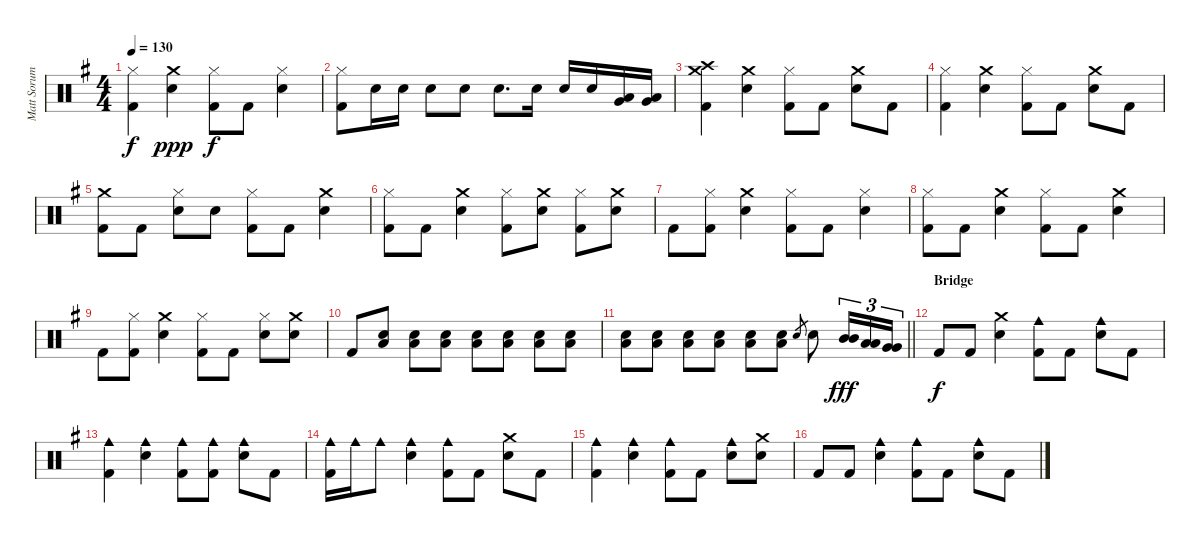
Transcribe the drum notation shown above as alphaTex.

\track ("Matt Sorum - Drums" "Matt Sorum") {instrument percussion}
\staff {score}
\articulation defaults
\ts (4 4)
\tempo 130
\clef neutral
\ks g
("Hi-Hat (closed)" "Kick (hit) 2").4{dy f} ("Crash medium (hit)" "Snare (hit) 2").4{dy ppp} ("Hi-Hat (closed)" "Kick (hit) 2").8{dy f} "Kick (hit) 2".8 ("Hi-Hat (closed)" "Snare (hit) 2").4 |
("Hi-Hat (closed)" "Kick (hit) 2").8 "Snare (hit) 2".16 "Snare (hit) 2".16 "Snare (hit) 2".8 "Snare (hit) 2".8 "Snare (hit) 2".8{d} "Snare (hit) 2".16 "Snare (hit) 2".16 "Snare (hit) 2".16 ("Low Tom (hit)" "Very Low Tom (hit)").16 ("Low Tom (hit)" "Very Low Tom (hit)").16 |
("Crash medium (hit)" "Crash high (hit)" "Kick (hit) 2").4 ("Crash medium (hit)" "Snare (hit) 2").4 ("Hi-Hat (closed)" "Kick (hit) 2").8 "Kick (hit) 2".8 ("Crash medium (hit)" "Snare (hit) 2").8 "Kick (hit) 2".8 |
("Hi-Hat (closed)" "Kick (hit) 2").4 ("Crash medium (hit)" "Snare (hit) 2").4 ("Hi-Hat (closed)" "Kick (hit) 2").8 "Kick (hit) 2".8 ("Crash medium (hit)" "Snare (hit) 2").8 "Kick (hit) 2".8 |
("Crash medium (hit)" "Kick (hit) 2").8 "Kick (hit) 2".8 ("Hi-Hat (closed)" "Snare (hit) 2").8 "Snare (hit) 2".8 ("Hi-Hat (closed)" "Kick (hit) 2").8 "Kick (hit) 2".8 ("Crash medium (hit)" "Snare (hit) 2").4 |
("Hi-Hat (closed)" "Kick (hit) 2").8 "Kick (hit) 2".8 ("Crash medium (hit)" "Snare (hit) 2").4 ("Hi-Hat (closed)" "Kick (hit) 2").8 ("Crash medium (hit)" "Snare (hit) 2").8 ("Hi-Hat (closed)" "Kick (hit) 2").8 ("Crash medium (hit)" "Snare (hit) 2").8 |
"Kick (hit) 2".8 ("Hi-Hat (closed)" "Kick (hit) 2").8 ("Crash medium (hit)" "Snare (hit) 2").4 ("Hi-Hat (closed)" "Kick (hit) 2").8 "Kick (hit) 2".8 ("Hi-Hat (closed)" "Snare (hit) 2").4 |
("Hi-Hat (closed)" "Kick (hit) 2").8 "Kick (hit) 2".8 ("Crash medium (hit)" "Snare (hit) 2").4 ("Hi-Hat (closed)" "Kick (hit) 2").8 "Kick (hit) 2".8 ("Crash medium (hit)" "Snare (hit) 2").4 |
"Kick (hit) 2".8 ("Hi-Hat (closed)" "Kick (hit) 2").8 ("Crash medium (hit)" "Snare (hit) 2").4 ("Hi-Hat (closed)" "Kick (hit) 2").8 "Kick (hit) 2".8 ("Hi-Hat (closed)" "Snare (hit) 2").8 ("Crash medium (hit)" "Snare (hit) 2").8 |
"Kick (hit) 2".8 ("Low Tom (hit)" "Snare (hit) 2").8 ("Low Tom (hit)" "Snare (hit) 2").8 ("Low Tom (hit)" "Snare (hit) 2").8 ("Low Tom (hit)" "Snare (hit) 2").8 ("Low Tom (hit)" "Snare (hit) 2").8 ("Low Tom (hit)" "Snare (hit) 2").8 ("Low Tom (hit)" "Snare (hit) 2").8 |
\barLineRight lightlight
("Low Tom (hit)" "Snare (hit) 2").8 ("Low Tom (hit)" "Snare (hit) 2").8 ("Low Tom (hit)" "Snare (hit) 2").8 ("Low Tom (hit)" "Snare (hit) 2").8 ("Low Tom (hit)" "Snare (hit) 2").8 ("Low Tom (hit)" "Snare (hit) 2").8 "Snare (hit) 2".8{gr} "Snare (hit) 2".8 ("Mid Tom (hit)" "Mid Tom (hit)").16{tu (3 2) dy fff} ("Low Tom (hit)" "Low Tom (hit)").16{tu (3 2)} ("Very Low Tom (hit)" "Very Low Tom (hit)").16{tu (3 2)} |
\section ("" "Bridge")
"Kick (hit) 2".8{dy f} "Kick (hit) 2".8 ("Crash medium (hit)" "Snare (hit) 2").4 ("Cowbell medium (hit)" "Kick (hit) 2").8 "Kick (hit) 2".8 ("Cowbell medium (hit)" "Snare (hit) 2").8 "Kick (hit) 2".8 |
("Cowbell medium (hit)" "Kick (hit) 2").4 ("Cowbell medium (hit)" "Snare (hit) 2").4 ("Cowbell medium (hit)" "Kick (hit) 2").8 ("Cowbell medium (hit)" "Kick (hit) 2").8 ("Cowbell medium (hit)" "Snare (hit) 2").8 "Kick (hit) 2".8 |
("Cowbell medium (hit)" "Kick (hit) 2").16 "Cowbell medium (hit)".16 "Cowbell medium (hit)".8 ("Cowbell medium (hit)" "Snare (hit) 2").4 ("Cowbell medium (hit)" "Kick (hit) 2").8 "Kick (hit) 2".8 ("Crash medium (hit)" "Snare (hit) 2").8 "Kick (hit) 2".8 |
("Cowbell medium (hit)" "Kick (hit) 2").4 ("Cowbell medium (hit)" "Snare (hit) 2").4 ("Cowbell medium (hit)" "Kick (hit) 2").8 "Kick (hit) 2".8 ("Cowbell medium (hit)" "Snare (hit) 2").8 ("Crash medium (hit)" "Snare (hit) 2").8 |
"Kick (hit) 2".8 "Kick (hit) 2".8 ("Cowbell medium (hit)" "Snare (hit) 2").4 ("Cowbell medium (hit)" "Kick (hit) 2").8 "Kick (hit) 2".8 ("Cowbell medium (hit)" "Snare (hit) 2").8 "Kick (hit) 2".8
